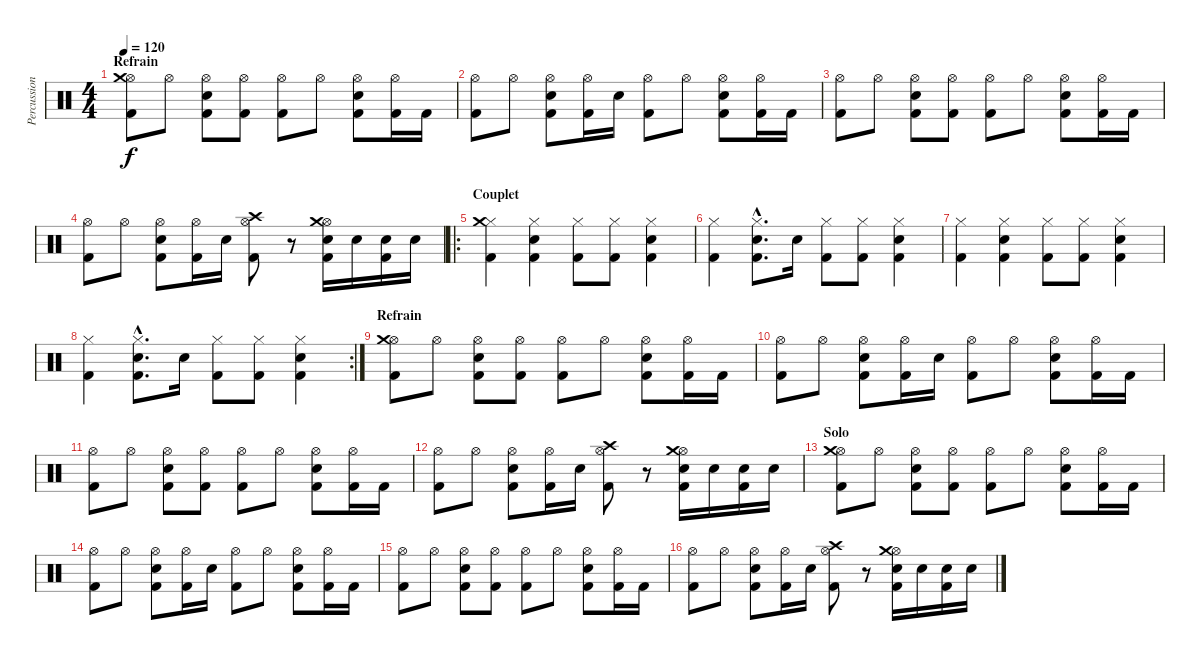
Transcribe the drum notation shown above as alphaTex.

\track ("Percussions" "Percussion") {instrument percussion}
\staff {score}
\articulation defaults
\ts (4 4)
\section ("" "Refrain")
\tempo 120
\clef neutral
\ks c
("Hi-Hat (open)" "Crash medium (hit)" "Kick (hit) 2").8{dy f} "Hi-Hat (open)".8 ("Hi-Hat (open)" "Snare (hit) 2" "Kick (hit) 2").8 ("Hi-Hat (open)" "Kick (hit) 2").8 ("Hi-Hat (open)" "Kick (hit) 2").8 "Hi-Hat (open)".8 ("Hi-Hat (open)" "Snare (hit) 2" "Kick (hit) 2").8 ("Hi-Hat (open)" "Kick (hit) 2").16 "Kick (hit) 2".16 |
("Hi-Hat (open)" "Kick (hit) 2").8 "Hi-Hat (open)".8 ("Hi-Hat (open)" "Snare (hit) 2" "Kick (hit) 2").8 ("Hi-Hat (open)" "Kick (hit) 2").16 "Snare (hit) 2".16 ("Hi-Hat (open)" "Kick (hit) 2").8 "Hi-Hat (open)".8 ("Hi-Hat (open)" "Snare (hit) 2" "Kick (hit) 2").8 ("Hi-Hat (open)" "Kick (hit) 2").16 "Kick (hit) 2".16 |
("Hi-Hat (open)" "Kick (hit) 2").8 "Hi-Hat (open)".8 ("Hi-Hat (open)" "Snare (hit) 2" "Kick (hit) 2").8 ("Hi-Hat (open)" "Kick (hit) 2").8 ("Hi-Hat (open)" "Kick (hit) 2").8 "Hi-Hat (open)".8 ("Hi-Hat (open)" "Snare (hit) 2" "Kick (hit) 2").8 ("Hi-Hat (open)" "Kick (hit) 2").16 "Kick (hit) 2".16 |
("Hi-Hat (open)" "Kick (hit) 2").8 "Hi-Hat (open)".8 ("Hi-Hat (open)" "Snare (hit) 2" "Kick (hit) 2").8 ("Hi-Hat (open)" "Kick (hit) 2").16 "Snare (hit) 2".16 ("Hi-Hat (open)" "Crash high (hit)" "Kick (hit) 2").8 r.8 ("Hi-Hat (open)" "Snare (hit) 2" "Crash medium (hit)" "Kick (hit) 2").16 "Snare (hit) 2".16 ("Snare (hit) 2" "Kick (hit) 2").16 "Snare (hit) 2".16 |
\ro
\section ("" "Couplet")
("Hi-Hat (closed)" "Crash medium (hit)" "Kick (hit) 2").4 ("Hi-Hat (closed)" "Snare (hit) 2" "Kick (hit) 2").4 ("Hi-Hat (closed)" "Kick (hit) 2").8 ("Hi-Hat (closed)" "Kick (hit) 2").8 ("Hi-Hat (closed)" "Snare (hit) 2" "Kick (hit) 2").4 |
("Hi-Hat (closed)" "Kick (hit) 2").4 ("Hi-Hat (closed)"{hac} "Snare (hit) 2"{hac} "Kick (hit) 2"{hac}).8{d} "Snare (hit) 2".16 ("Hi-Hat (closed)" "Kick (hit) 2").8 ("Hi-Hat (closed)" "Kick (hit) 2").8 ("Hi-Hat (closed)" "Snare (hit) 2" "Kick (hit) 2").4 |
("Hi-Hat (closed)" "Kick (hit) 2").4 ("Hi-Hat (closed)" "Snare (hit) 2" "Kick (hit) 2").4 ("Hi-Hat (closed)" "Kick (hit) 2").8 ("Hi-Hat (closed)" "Kick (hit) 2").8 ("Hi-Hat (closed)" "Snare (hit) 2" "Kick (hit) 2").4 |
\rc 2
("Hi-Hat (closed)" "Kick (hit) 2").4 ("Hi-Hat (closed)"{hac} "Snare (hit) 2"{hac} "Kick (hit) 2"{hac}).8{d} "Snare (hit) 2".16 ("Hi-Hat (closed)" "Kick (hit) 2").8 ("Hi-Hat (closed)" "Kick (hit) 2").8 ("Hi-Hat (closed)" "Snare (hit) 2" "Kick (hit) 2").4 |
\section ("" "Refrain")
("Hi-Hat (open)" "Crash medium (hit)" "Kick (hit) 2").8 "Hi-Hat (open)".8 ("Hi-Hat (open)" "Snare (hit) 2" "Kick (hit) 2").8 ("Hi-Hat (open)" "Kick (hit) 2").8 ("Hi-Hat (open)" "Kick (hit) 2").8 "Hi-Hat (open)".8 ("Hi-Hat (open)" "Snare (hit) 2" "Kick (hit) 2").8 ("Hi-Hat (open)" "Kick (hit) 2").16 "Kick (hit) 2".16 |
("Hi-Hat (open)" "Kick (hit) 2").8 "Hi-Hat (open)".8 ("Hi-Hat (open)" "Snare (hit) 2" "Kick (hit) 2").8 ("Hi-Hat (open)" "Kick (hit) 2").16 "Snare (hit) 2".16 ("Hi-Hat (open)" "Kick (hit) 2").8 "Hi-Hat (open)".8 ("Hi-Hat (open)" "Snare (hit) 2" "Kick (hit) 2").8 ("Hi-Hat (open)" "Kick (hit) 2").16 "Kick (hit) 2".16 |
("Hi-Hat (open)" "Kick (hit) 2").8 "Hi-Hat (open)".8 ("Hi-Hat (open)" "Snare (hit) 2" "Kick (hit) 2").8 ("Hi-Hat (open)" "Kick (hit) 2").8 ("Hi-Hat (open)" "Kick (hit) 2").8 "Hi-Hat (open)".8 ("Hi-Hat (open)" "Snare (hit) 2" "Kick (hit) 2").8 ("Hi-Hat (open)" "Kick (hit) 2").16 "Kick (hit) 2".16 |
("Hi-Hat (open)" "Kick (hit) 2").8 "Hi-Hat (open)".8 ("Hi-Hat (open)" "Snare (hit) 2" "Kick (hit) 2").8 ("Hi-Hat (open)" "Kick (hit) 2").16 "Snare (hit) 2".16 ("Hi-Hat (open)" "Crash high (hit)" "Kick (hit) 2").8 r.8 ("Hi-Hat (open)" "Snare (hit) 2" "Crash medium (hit)" "Kick (hit) 2").16 "Snare (hit) 2".16 ("Snare (hit) 2" "Kick (hit) 2").16 "Snare (hit) 2".16 |
\section ("" "Solo")
("Hi-Hat (open)" "Crash medium (hit)" "Kick (hit) 2").8 "Hi-Hat (open)".8 ("Hi-Hat (open)" "Snare (hit) 2" "Kick (hit) 2").8 ("Hi-Hat (open)" "Kick (hit) 2").8 ("Hi-Hat (open)" "Kick (hit) 2").8 "Hi-Hat (open)".8 ("Hi-Hat (open)" "Snare (hit) 2" "Kick (hit) 2").8 ("Hi-Hat (open)" "Kick (hit) 2").16 "Kick (hit) 2".16 |
("Hi-Hat (open)" "Kick (hit) 2").8 "Hi-Hat (open)".8 ("Hi-Hat (open)" "Snare (hit) 2" "Kick (hit) 2").8 ("Hi-Hat (open)" "Kick (hit) 2").16 "Snare (hit) 2".16 ("Hi-Hat (open)" "Kick (hit) 2").8 "Hi-Hat (open)".8 ("Hi-Hat (open)" "Snare (hit) 2" "Kick (hit) 2").8 ("Hi-Hat (open)" "Kick (hit) 2").16 "Kick (hit) 2".16 |
("Hi-Hat (open)" "Kick (hit) 2").8 "Hi-Hat (open)".8 ("Hi-Hat (open)" "Snare (hit) 2" "Kick (hit) 2").8 ("Hi-Hat (open)" "Kick (hit) 2").8 ("Hi-Hat (open)" "Kick (hit) 2").8 "Hi-Hat (open)".8 ("Hi-Hat (open)" "Snare (hit) 2" "Kick (hit) 2").8 ("Hi-Hat (open)" "Kick (hit) 2").16 "Kick (hit) 2".16 |
("Hi-Hat (open)" "Kick (hit) 2").8 "Hi-Hat (open)".8 ("Hi-Hat (open)" "Snare (hit) 2" "Kick (hit) 2").8 ("Hi-Hat (open)" "Kick (hit) 2").16 "Snare (hit) 2".16 ("Hi-Hat (open)" "Crash high (hit)" "Kick (hit) 2").8 r.8 ("Hi-Hat (open)" "Snare (hit) 2" "Crash medium (hit)" "Kick (hit) 2").16 "Snare (hit) 2".16 ("Snare (hit) 2" "Kick (hit) 2").16 "Snare (hit) 2".16
